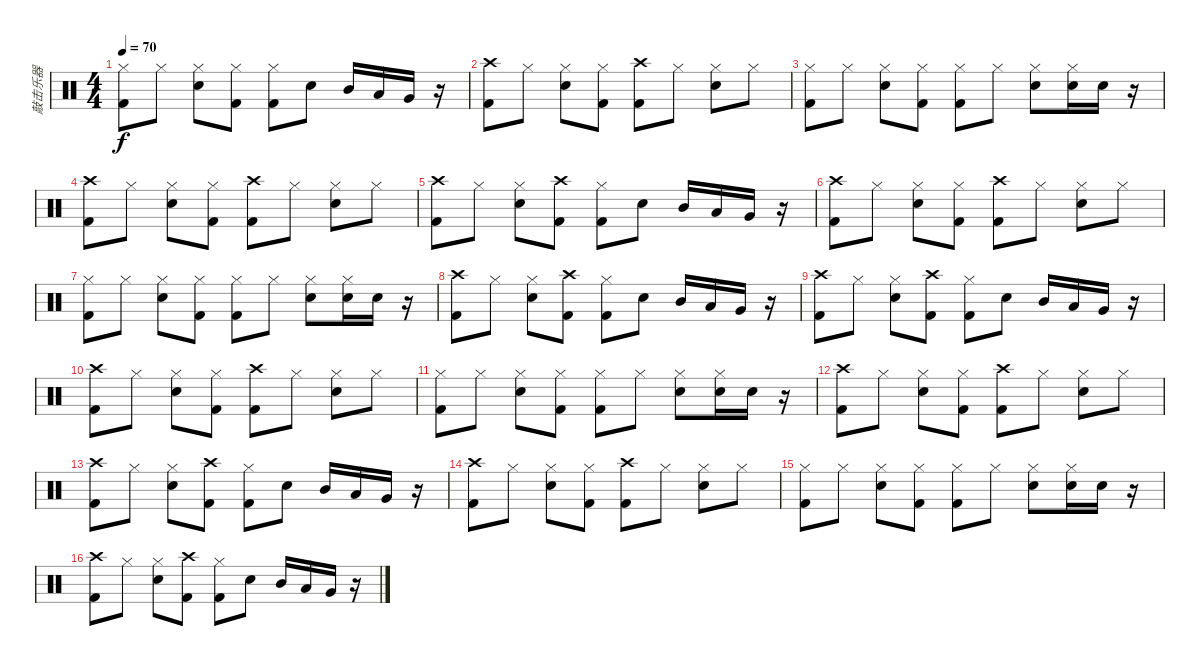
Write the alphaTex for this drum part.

\track ("敲击乐器" "敲击乐器") {instrument percussion}
\staff {score}
\articulation defaults
\ts (4 4)
\tempo 70
\clef neutral
\ks c
("Hi-Hat (closed)" "Kick (hit) 2").8{dy f} "Hi-Hat (closed)".8 ("Hi-Hat (closed)" "Electric Snare (hit)").8 ("Hi-Hat (closed)" "Kick (hit) 2").8 ("Hi-Hat (closed)" "Kick (hit) 2").8 "Electric Snare (hit)".8 "Mid Tom (hit)".16 "Low Tom (hit)".16 "Very Low Tom (hit)".16 r.16 |
("Crash high (hit)" "Kick (hit) 2").8 "Hi-Hat (closed)".8 ("Hi-Hat (closed)" "Electric Snare (hit)").8 ("Hi-Hat (closed)" "Kick (hit) 2").8 ("Crash high (hit)" "Kick (hit) 2").8 "Hi-Hat (closed)".8 ("Hi-Hat (closed)" "Electric Snare (hit)").8 "Hi-Hat (closed)".8 |
("Hi-Hat (closed)" "Kick (hit) 2").8 "Hi-Hat (closed)".8 ("Hi-Hat (closed)" "Electric Snare (hit)").8 ("Hi-Hat (closed)" "Kick (hit) 2").8 ("Hi-Hat (closed)" "Kick (hit) 2").8 "Hi-Hat (closed)".8 ("Hi-Hat (closed)" "Electric Snare (hit)").8 ("Hi-Hat (closed)" "Electric Snare (hit)").16 "Electric Snare (hit)".16 r.16 |
("Crash high (hit)" "Kick (hit) 2").8 "Hi-Hat (closed)".8 ("Hi-Hat (closed)" "Electric Snare (hit)").8 ("Hi-Hat (closed)" "Kick (hit) 2").8 ("Crash high (hit)" "Kick (hit) 2").8 "Hi-Hat (closed)".8 ("Hi-Hat (closed)" "Electric Snare (hit)").8 "Hi-Hat (closed)".8 |
("Crash high (hit)" "Kick (hit) 2").8 "Hi-Hat (closed)".8 ("Hi-Hat (closed)" "Electric Snare (hit)").8 ("Crash high (hit)" "Kick (hit) 2").8 ("Hi-Hat (closed)" "Kick (hit) 2").8 "Electric Snare (hit)".8 "Mid Tom (hit)".16 "Low Tom (hit)".16 "Very Low Tom (hit)".16 r.16 |
("Crash high (hit)" "Kick (hit) 2").8 "Hi-Hat (closed)".8 ("Hi-Hat (closed)" "Electric Snare (hit)").8 ("Hi-Hat (closed)" "Kick (hit) 2").8 ("Crash high (hit)" "Kick (hit) 2").8 "Hi-Hat (closed)".8 ("Hi-Hat (closed)" "Electric Snare (hit)").8 "Hi-Hat (closed)".8 |
("Hi-Hat (closed)" "Kick (hit) 2").8 "Hi-Hat (closed)".8 ("Hi-Hat (closed)" "Electric Snare (hit)").8 ("Hi-Hat (closed)" "Kick (hit) 2").8 ("Hi-Hat (closed)" "Kick (hit) 2").8 "Hi-Hat (closed)".8 ("Hi-Hat (closed)" "Electric Snare (hit)").8 ("Hi-Hat (closed)" "Electric Snare (hit)").16 "Electric Snare (hit)".16 r.16 |
("Crash high (hit)" "Kick (hit) 2").8 "Hi-Hat (closed)".8 ("Hi-Hat (closed)" "Electric Snare (hit)").8 ("Crash high (hit)" "Kick (hit) 2").8 ("Hi-Hat (closed)" "Kick (hit) 2").8 "Electric Snare (hit)".8 "Mid Tom (hit)".16 "Low Tom (hit)".16 "Very Low Tom (hit)".16 r.16 |
("Crash high (hit)" "Kick (hit) 2").8 "Hi-Hat (closed)".8 ("Hi-Hat (closed)" "Electric Snare (hit)").8 ("Crash high (hit)" "Kick (hit) 2").8 ("Hi-Hat (closed)" "Kick (hit) 2").8 "Electric Snare (hit)".8 "Mid Tom (hit)".16 "Low Tom (hit)".16 "Very Low Tom (hit)".16 r.16 |
("Crash high (hit)" "Kick (hit) 2").8 "Hi-Hat (closed)".8 ("Hi-Hat (closed)" "Electric Snare (hit)").8 ("Hi-Hat (closed)" "Kick (hit) 2").8 ("Crash high (hit)" "Kick (hit) 2").8 "Hi-Hat (closed)".8 ("Hi-Hat (closed)" "Electric Snare (hit)").8 "Hi-Hat (closed)".8 |
("Hi-Hat (closed)" "Kick (hit) 2").8 "Hi-Hat (closed)".8 ("Hi-Hat (closed)" "Electric Snare (hit)").8 ("Hi-Hat (closed)" "Kick (hit) 2").8 ("Hi-Hat (closed)" "Kick (hit) 2").8 "Hi-Hat (closed)".8 ("Hi-Hat (closed)" "Electric Snare (hit)").8 ("Hi-Hat (closed)" "Electric Snare (hit)").16 "Electric Snare (hit)".16 r.16 |
("Crash high (hit)" "Kick (hit) 2").8 "Hi-Hat (closed)".8 ("Hi-Hat (closed)" "Electric Snare (hit)").8 ("Hi-Hat (closed)" "Kick (hit) 2").8 ("Crash high (hit)" "Kick (hit) 2").8 "Hi-Hat (closed)".8 ("Hi-Hat (closed)" "Electric Snare (hit)").8 "Hi-Hat (closed)".8 |
("Crash high (hit)" "Kick (hit) 2").8 "Hi-Hat (closed)".8 ("Hi-Hat (closed)" "Electric Snare (hit)").8 ("Crash high (hit)" "Kick (hit) 2").8 ("Hi-Hat (closed)" "Kick (hit) 2").8 "Electric Snare (hit)".8 "Mid Tom (hit)".16 "Low Tom (hit)".16 "Very Low Tom (hit)".16 r.16 |
("Crash high (hit)" "Kick (hit) 2").8 "Hi-Hat (closed)".8 ("Hi-Hat (closed)" "Electric Snare (hit)").8 ("Hi-Hat (closed)" "Kick (hit) 2").8 ("Crash high (hit)" "Kick (hit) 2").8 "Hi-Hat (closed)".8 ("Hi-Hat (closed)" "Electric Snare (hit)").8 "Hi-Hat (closed)".8 |
("Hi-Hat (closed)" "Kick (hit) 2").8 "Hi-Hat (closed)".8 ("Hi-Hat (closed)" "Electric Snare (hit)").8 ("Hi-Hat (closed)" "Kick (hit) 2").8 ("Hi-Hat (closed)" "Kick (hit) 2").8 "Hi-Hat (closed)".8 ("Hi-Hat (closed)" "Electric Snare (hit)").8 ("Hi-Hat (closed)" "Electric Snare (hit)").16 "Electric Snare (hit)".16 r.16 |
("Crash high (hit)" "Kick (hit) 2").8 "Hi-Hat (closed)".8 ("Hi-Hat (closed)" "Electric Snare (hit)").8 ("Crash high (hit)" "Kick (hit) 2").8 ("Hi-Hat (closed)" "Kick (hit) 2").8 "Electric Snare (hit)".8 "Mid Tom (hit)".16 "Low Tom (hit)".16 "Very Low Tom (hit)".16 r.16
